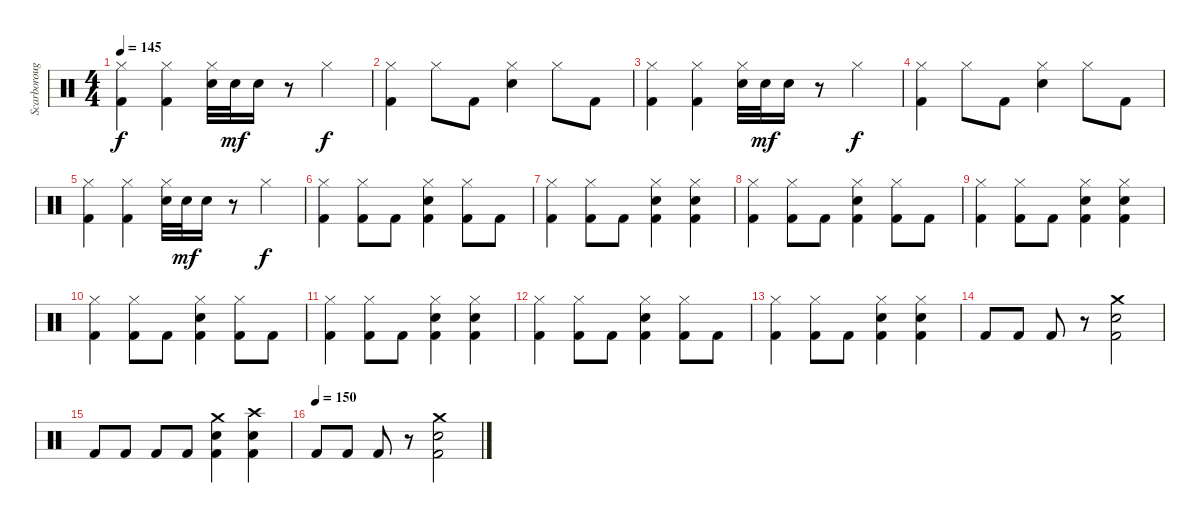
\track ("Scarborough" "Scarboroug") {instrument percussion}
\staff {score}
\articulation defaults
\ts (4 4)
\tempo 145
\clef neutral
\ks c
("Hi-Hat (closed)" "Kick (hit) 2").4{dy f} ("Hi-Hat (closed)" "Kick (hit) 2").4 ("Hi-Hat (closed)" "Snare (hit) 2").32 "Snare (hit) 2".32{dy mf} "Snare (hit) 2".16 r.8 "Hi-Hat (closed)".4{dy f} |
("Hi-Hat (closed)" "Kick (hit) 2").4 "Hi-Hat (closed)".8 "Kick (hit) 2".8 ("Hi-Hat (closed)" "Snare (hit) 2").4 "Hi-Hat (closed)".8 "Kick (hit) 2".8 |
("Hi-Hat (closed)" "Kick (hit) 2").4 ("Hi-Hat (closed)" "Kick (hit) 2").4 ("Hi-Hat (closed)" "Snare (hit) 2").32 "Snare (hit) 2".32{dy mf} "Snare (hit) 2".16 r.8 "Hi-Hat (closed)".4{dy f} |
("Hi-Hat (closed)" "Kick (hit) 2").4 "Hi-Hat (closed)".8 "Kick (hit) 2".8 ("Hi-Hat (closed)" "Snare (hit) 2").4 "Hi-Hat (closed)".8 "Kick (hit) 2".8 |
("Hi-Hat (closed)" "Kick (hit) 2").4 ("Hi-Hat (closed)" "Kick (hit) 2").4 ("Hi-Hat (closed)" "Snare (hit) 2").32 "Snare (hit) 2".32{dy mf} "Snare (hit) 2".16 r.8 "Hi-Hat (closed)".4{dy f} |
("Hi-Hat (closed)" "Kick (hit) 2").4 ("Hi-Hat (closed)" "Kick (hit) 2").8 "Kick (hit) 2".8 ("Hi-Hat (closed)" "Kick (hit) 2" "Snare (hit) 2").4 ("Hi-Hat (closed)" "Kick (hit) 2").8 "Kick (hit) 2".8 |
("Hi-Hat (closed)" "Kick (hit) 2").4 ("Hi-Hat (closed)" "Kick (hit) 2").8 "Kick (hit) 2".8 ("Hi-Hat (closed)" "Kick (hit) 2" "Snare (hit) 2").4 ("Hi-Hat (closed)" "Kick (hit) 2" "Snare (hit) 2").4 |
("Hi-Hat (closed)" "Kick (hit) 2").4 ("Hi-Hat (closed)" "Kick (hit) 2").8 "Kick (hit) 2".8 ("Hi-Hat (closed)" "Kick (hit) 2" "Snare (hit) 2").4 ("Hi-Hat (closed)" "Kick (hit) 2").8 "Kick (hit) 2".8 |
("Hi-Hat (closed)" "Kick (hit) 2").4 ("Hi-Hat (closed)" "Kick (hit) 2").8 "Kick (hit) 2".8 ("Hi-Hat (closed)" "Kick (hit) 2" "Snare (hit) 2").4 ("Hi-Hat (closed)" "Kick (hit) 2" "Snare (hit) 2").4 |
("Hi-Hat (closed)" "Kick (hit) 2").4 ("Hi-Hat (closed)" "Kick (hit) 2").8 "Kick (hit) 2".8 ("Hi-Hat (closed)" "Kick (hit) 2" "Snare (hit) 2").4 ("Hi-Hat (closed)" "Kick (hit) 2").8 "Kick (hit) 2".8 |
("Hi-Hat (closed)" "Kick (hit) 2").4 ("Hi-Hat (closed)" "Kick (hit) 2").8 "Kick (hit) 2".8 ("Hi-Hat (closed)" "Kick (hit) 2" "Snare (hit) 2").4 ("Hi-Hat (closed)" "Kick (hit) 2" "Snare (hit) 2").4 |
("Hi-Hat (closed)" "Kick (hit) 2").4 ("Hi-Hat (closed)" "Kick (hit) 2").8 "Kick (hit) 2".8 ("Hi-Hat (closed)" "Kick (hit) 2" "Snare (hit) 2").4 ("Hi-Hat (closed)" "Kick (hit) 2").8 "Kick (hit) 2".8 |
("Hi-Hat (closed)" "Kick (hit) 2").4 ("Hi-Hat (closed)" "Kick (hit) 2").8 "Kick (hit) 2".8 ("Hi-Hat (closed)" "Kick (hit) 2" "Snare (hit) 2").4 ("Hi-Hat (closed)" "Kick (hit) 2" "Snare (hit) 2").4 |
"Kick (hit) 2".8 "Kick (hit) 2".8 "Kick (hit) 2".8 r.8 ("Crash medium (hit)" "Kick (hit) 2" "Snare (hit) 2").2 |
"Kick (hit) 2".8 "Kick (hit) 2".8 "Kick (hit) 2".8 "Kick (hit) 2".8 ("Crash medium (hit)" "Kick (hit) 2" "Snare (hit) 2").4 ("Crash high (hit)" "Kick (hit) 2" "Snare (hit) 2").4 |
\tempo (150)
"Kick (hit) 2".8 "Kick (hit) 2".8 "Kick (hit) 2".8 r.8 ("Crash medium (hit)" "Kick (hit) 2" "Snare (hit) 2").2
